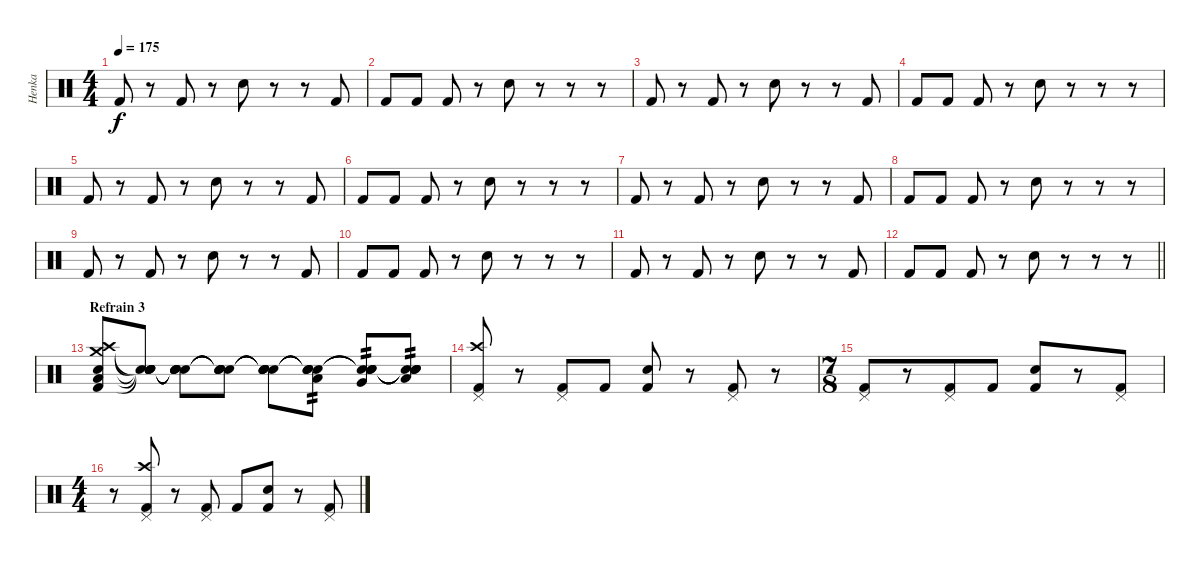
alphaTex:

\track ("Henka" "Henka") {instrument percussion}
\staff {score}
\articulation defaults
\ts (4 4)
\tempo 175
\clef neutral
\ks c "Kick (hit) 2".8{dy f}
r.8 "Kick (hit) 2".8 r.8 "Snare (hit) 2".8 r.8 r.8 "Kick (hit) 2".8 |
"Kick (hit) 2".8 "Kick (hit) 2".8 "Kick (hit) 2".8 r.8 "Snare (hit) 2".8 r.8 r.8 r.8 |
"Kick (hit) 2".8 r.8 "Kick (hit) 2".8 r.8 "Snare (hit) 2".8 r.8 r.8 "Kick (hit) 2".8 |
"Kick (hit) 2".8 "Kick (hit) 2".8 "Kick (hit) 2".8 r.8 "Snare (hit) 2".8 r.8 r.8 r.8 |
"Kick (hit) 2".8 r.8 "Kick (hit) 2".8 r.8 "Snare (hit) 2".8 r.8 r.8 "Kick (hit) 2".8 |
"Kick (hit) 2".8 "Kick (hit) 2".8 "Kick (hit) 2".8 r.8 "Snare (hit) 2".8 r.8 r.8 r.8 |
"Kick (hit) 2".8 r.8 "Kick (hit) 2".8 r.8 "Snare (hit) 2".8 r.8 r.8 "Kick (hit) 2".8 |
"Kick (hit) 2".8 "Kick (hit) 2".8 "Kick (hit) 2".8 r.8 "Snare (hit) 2".8 r.8 r.8 r.8 |
"Kick (hit) 2".8 r.8 "Kick (hit) 2".8 r.8 "Snare (hit) 2".8 r.8 r.8 "Kick (hit) 2".8 |
"Kick (hit) 2".8 "Kick (hit) 2".8 "Kick (hit) 2".8 r.8 "Snare (hit) 2".8 r.8 r.8 r.8 |
"Kick (hit) 2".8 r.8 "Kick (hit) 2".8 r.8 "Snare (hit) 2".8 r.8 r.8 "Kick (hit) 2".8 |
\barLineRight lightlight "Kick (hit) 2".8 "Kick (hit) 2".8 "Kick (hit) 2".8
r.8 "Snare (hit) 2".8 r.8 r.8 r.8 |
\section ("" "Refrain 3")
("Crash high (hit)" "Crash medium (hit)" "Snare (hit) 2" "Low Floor Tom (hit)" "Kick (hit) 2").8 ("Snare (hit)"{t} "Snare (hit)"{t} "Snare (hit)"{t} "Snare (hit)"{t} "Snare (hit)"{t}).8 ("Snare (hit)"{t} "Snare (hit)"{t} "Snare (hit)"{t} "Snare (hit)"{t} "Snare (hit)"{t}).8 ("Snare (hit)"{t} "Snare (hit)"{t} "Snare (hit)"{t} "Snare (hit)"{t} "Snare (hit)"{t}).8 ("Snare (hit)"{t} "Snare (hit)"{t} "Snare (hit)"{t} "Snare (hit)"{t} "Snare (hit)"{t}).8 ("Snare (hit)"{t} "Snare (hit)"{t} "Low Tom (hit)" "Snare (hit)"{t} "Snare (hit)"{t}).8{tp 2} ("Snare (hit)"{t} "Snare (hit)"{t} "Very Low Tom (hit)" "Snare (hit)"{t} "Snare (hit)"{t}).8{tp 2} ("Snare (hit)"{t} "Snare (hit)"{t} "Low Floor Tom (hit)" "Snare (hit)"{t} "Snare (hit)"{t}).8{tp 2} |
("Crash high (hit)" "Pedal Hi-Hat (hit)" "Kick (hit) 2").8 r.8 ("Pedal Hi-Hat (hit)" "Kick (hit) 2").8 "Kick (hit) 2".8 ("Snare (hit) 2" "Kick (hit) 2").8 r.8 ("Pedal Hi-Hat (hit)" "Kick (hit) 2").8 r.8 |
\ts (7 8)
("Pedal Hi-Hat (hit)" "Kick (hit) 2").8 r.8 ("Pedal Hi-Hat (hit)" "Kick (hit) 2").8 "Kick (hit) 2".8 ("Snare (hit) 2" "Kick (hit) 2").8 r.8 ("Pedal Hi-Hat (hit)" "Kick (hit) 2").8 |
\ts (4 4)
r.8 ("Crash high (hit)" "Pedal Hi-Hat (hit)" "Kick (hit) 2").8 r.8 ("Pedal Hi-Hat (hit)" "Kick (hit) 2").8 "Kick (hit) 2".8 ("Snare (hit) 2" "Kick (hit) 2").8 r.8 ("Pedal Hi-Hat (hit)" "Kick (hit) 2").8
